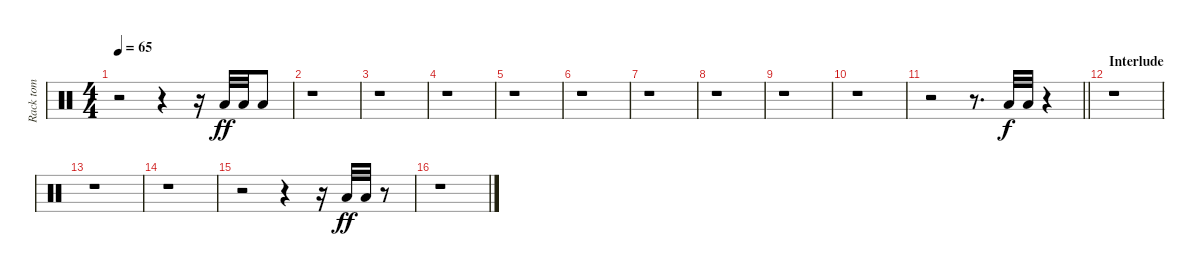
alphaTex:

\track ("Rack tom" "Rack tom") {instrument percussion}
\staff {score}
\articulation defaults
\ts (4 4)
\tempo 65
\clef neutral
\ks c
r.2{dy f} r.4 r.16 "Low Tom (hit)".32{dy ff} "Low Tom (hit)".32 "Low Tom (hit)".8 |
r.1 |
r.1 |
r.1 |
r.1 |
r.1 |
r.1 |
r.1 |
r.1 |
r.1 |
\barLineRight lightlight
r.2 r.8{d} "Low Tom (hit)".32{dy f} "Low Tom (hit)".32 r.4 |
\section ("" "Interlude")
r.1 |
r.1 |
r.1 |
r.2 r.4 r.16 "Low Tom (hit)".32{dy ff} "Low Tom (hit)".32 r.8 |
r.1
